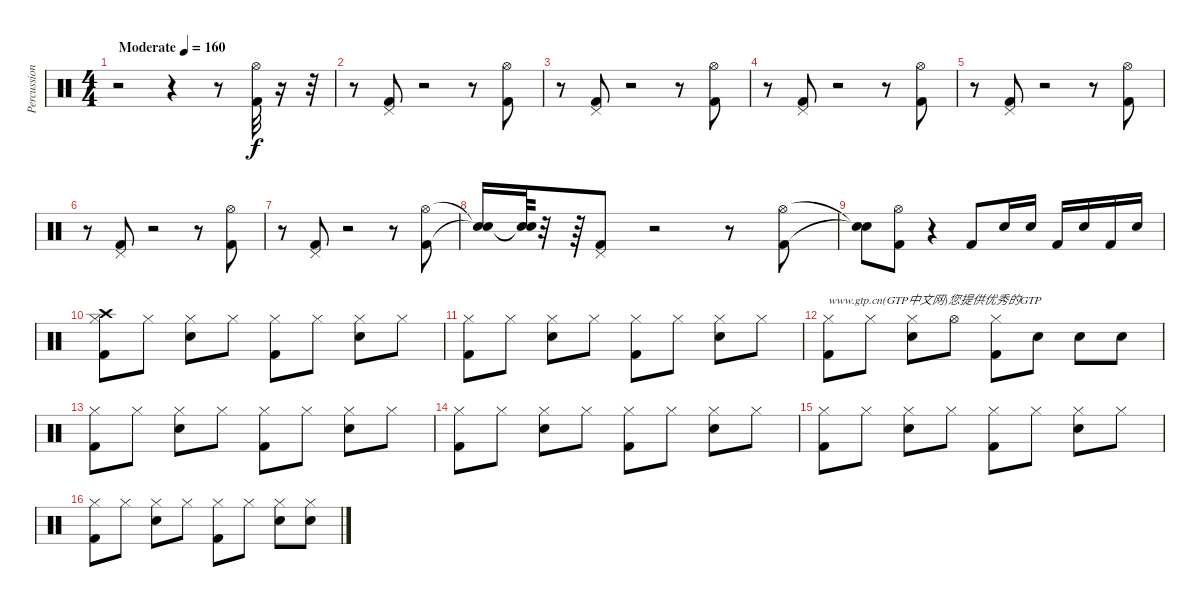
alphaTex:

\track ("Percussions" "Percussion") {instrument percussion}
\staff {score}
\articulation defaults
\ts (4 4)
\tempo (160 "Moderate")
\clef neutral
\ks c
r.2{dy f} r.4 r.8 ("Hi-Hat (open)" "Kick (hit) 2").32 r.16 r.32 |
r.8 ("Pedal Hi-Hat (hit)" "Kick (hit) 2").8 r.2 r.8 ("Hi-Hat (open)" "Kick (hit) 2").8 |
r.8 ("Pedal Hi-Hat (hit)" "Kick (hit) 2").8 r.2 r.8 ("Hi-Hat (open)" "Kick (hit) 2").8 |
r.8 ("Pedal Hi-Hat (hit)" "Kick (hit) 2").8 r.2 r.8 ("Hi-Hat (open)" "Kick (hit) 2").8 |
r.8 ("Pedal Hi-Hat (hit)" "Kick (hit) 2").8 r.2 r.8 ("Hi-Hat (open)" "Kick (hit) 2").8 |
r.8 ("Pedal Hi-Hat (hit)" "Kick (hit) 2").8 r.2 r.8 ("Hi-Hat (open)" "Kick (hit) 2").8 |
r.8 ("Pedal Hi-Hat (hit)" "Kick (hit) 2").8 r.2 r.8 ("Hi-Hat (open)" "Kick (hit) 2").8 |
("Snare (hit)"{t} "Snare (hit)"{t}).16 ("Snare (hit)"{t} "Snare (hit)"{t}).64 r.32 r.64 ("Pedal Hi-Hat (hit)" "Kick (hit) 2").8 r.2 r.8 ("Hi-Hat (open)" "Kick (hit) 2").8 |
("Snare (hit)"{t} "Snare (hit)"{t}).8 ("Hi-Hat (open)" "Kick (hit) 2").8 r.4 "Kick (hit) 2".8 "Snare (hit) 2".16 "Snare (hit) 2".16 "Kick (hit) 2".16 "Snare (hit) 2".16 "Kick (hit) 2".16 "Snare (hit) 2".16 |
("Crash high (hit)" "Hi-Hat (closed)" "Kick (hit) 2").8 "Hi-Hat (closed)".8 ("Hi-Hat (closed)" "Snare (hit) 2").8 "Hi-Hat (closed)".8 ("Hi-Hat (closed)" "Kick (hit) 2").8 "Hi-Hat (closed)".8 ("Hi-Hat (closed)" "Snare (hit) 2").8 "Hi-Hat (closed)".8 |
("Hi-Hat (closed)" "Kick (hit) 2").8 "Hi-Hat (closed)".8 ("Hi-Hat (closed)" "Snare (hit) 2").8 "Hi-Hat (closed)".8 ("Hi-Hat (closed)" "Kick (hit) 2").8 "Hi-Hat (closed)".8 ("Hi-Hat (closed)" "Snare (hit) 2").8 "Hi-Hat (closed)".8 |
("Hi-Hat (closed)" "Kick (hit) 2").8{txt "www.gtp.cn(GTP中文网)您提供优秀的GTP"} "Hi-Hat (closed)".8 ("Hi-Hat (closed)" "Snare (hit) 2").8 "Hi-Hat (open)".8 ("Hi-Hat (closed)" "Kick (hit) 2").8 "Snare (hit) 2".8 "Snare (hit) 2".8 "Snare (hit) 2".8 |
("Hi-Hat (closed)" "Kick (hit) 2").8 "Hi-Hat (closed)".8 ("Hi-Hat (closed)" "Snare (hit) 2").8 "Hi-Hat (closed)".8 ("Hi-Hat (closed)" "Kick (hit) 2").8 "Hi-Hat (closed)".8 ("Hi-Hat (closed)" "Snare (hit) 2").8 "Hi-Hat (closed)".8 |
("Hi-Hat (closed)" "Kick (hit) 2").8 "Hi-Hat (closed)".8 ("Hi-Hat (closed)" "Snare (hit) 2").8 "Hi-Hat (closed)".8 ("Hi-Hat (closed)" "Kick (hit) 2").8 "Hi-Hat (closed)".8 ("Hi-Hat (closed)" "Snare (hit) 2").8 "Hi-Hat (closed)".8 |
("Hi-Hat (closed)" "Kick (hit) 2").8 "Hi-Hat (closed)".8 ("Hi-Hat (closed)" "Snare (hit) 2").8 "Hi-Hat (closed)".8 ("Hi-Hat (closed)" "Kick (hit) 2").8 "Hi-Hat (closed)".8 ("Hi-Hat (closed)" "Snare (hit) 2").8 "Hi-Hat (closed)".8 |
("Hi-Hat (closed)" "Kick (hit) 2").8 "Hi-Hat (closed)".8 ("Hi-Hat (closed)" "Snare (hit) 2").8 "Hi-Hat (closed)".8 ("Hi-Hat (closed)" "Kick (hit) 2").8 "Hi-Hat (closed)".8 ("Hi-Hat (closed)" "Snare (hit) 2").8 ("Hi-Hat (closed)" "Snare (hit) 2").8
